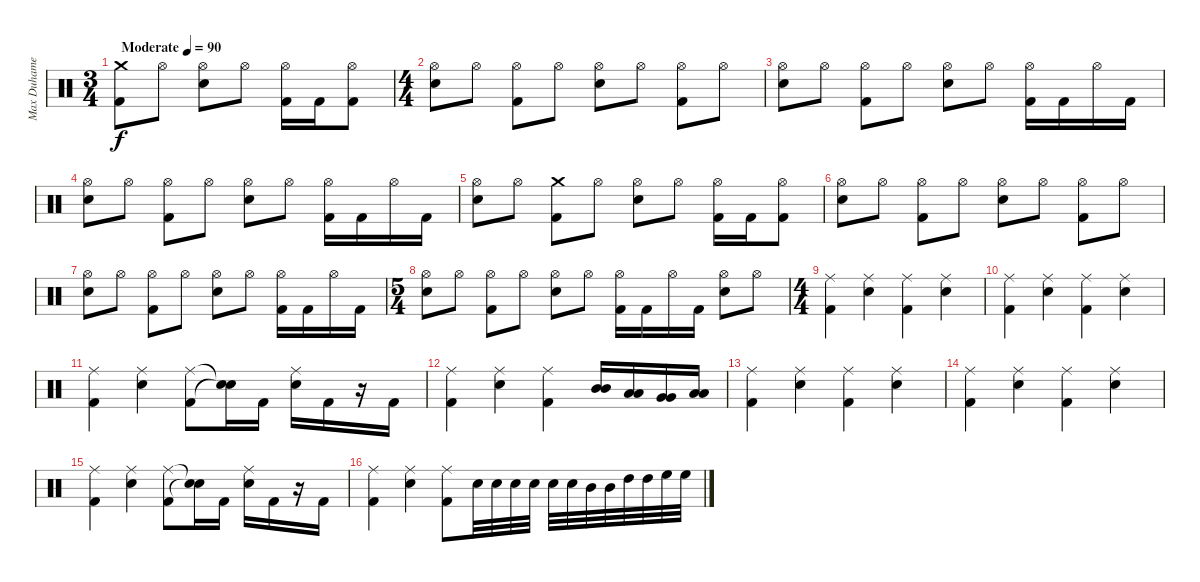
\track ("Max Duhamel (Drums)" "Max Duhame") {instrument percussion}
\staff {score}
\articulation defaults
\ts (3 4)
\tempo (90 "Moderate")
\clef neutral
\ks c
("Crash medium (hit)" "Kick (hit) 2").8{dy f} "Hi-Hat (open)".8 ("Hi-Hat (open)" "Snare (hit) 2").8 "Hi-Hat (open)".8 ("Hi-Hat (open)" "Kick (hit) 2").16 "Kick (hit) 2".16 ("Hi-Hat (open)" "Kick (hit) 2").8 |
\ts (4 4)
("Hi-Hat (open)" "Snare (hit) 2").8 "Hi-Hat (open)".8 ("Hi-Hat (open)" "Kick (hit) 2").8 "Hi-Hat (open)".8 ("Hi-Hat (open)" "Snare (hit) 2").8 "Hi-Hat (open)".8 ("Hi-Hat (open)" "Kick (hit) 2").8 "Hi-Hat (open)".8 |
("Hi-Hat (open)" "Snare (hit) 2").8 "Hi-Hat (open)".8 ("Hi-Hat (open)" "Kick (hit) 2").8 "Hi-Hat (open)".8 ("Hi-Hat (open)" "Snare (hit) 2").8 "Hi-Hat (open)".8 ("Hi-Hat (open)" "Kick (hit) 2").16 "Kick (hit) 2".16 "Hi-Hat (open)".16 "Kick (hit) 2".16 |
("Hi-Hat (open)" "Snare (hit) 2").8 "Hi-Hat (open)".8 ("Hi-Hat (open)" "Kick (hit) 2").8 "Hi-Hat (open)".8 ("Hi-Hat (open)" "Snare (hit) 2").8 "Hi-Hat (open)".8 ("Hi-Hat (open)" "Kick (hit) 2").16 "Kick (hit) 2".16 "Hi-Hat (open)".16 "Kick (hit) 2".16 |
("Hi-Hat (open)" "Snare (hit) 2").8 "Hi-Hat (open)".8 ("Crash medium (hit)" "Kick (hit) 2").8 "Hi-Hat (open)".8 ("Hi-Hat (open)" "Snare (hit) 2").8 "Hi-Hat (open)".8 ("Hi-Hat (open)" "Kick (hit) 2").16 "Kick (hit) 2".16 ("Hi-Hat (open)" "Kick (hit) 2").8 |
("Hi-Hat (open)" "Snare (hit) 2").8 "Hi-Hat (open)".8 ("Hi-Hat (open)" "Kick (hit) 2").8 "Hi-Hat (open)".8 ("Hi-Hat (open)" "Snare (hit) 2").8 "Hi-Hat (open)".8 ("Hi-Hat (open)" "Kick (hit) 2").8 "Hi-Hat (open)".8 |
("Hi-Hat (open)" "Snare (hit) 2").8 "Hi-Hat (open)".8 ("Hi-Hat (open)" "Kick (hit) 2").8 "Hi-Hat (open)".8 ("Hi-Hat (open)" "Snare (hit) 2").8 "Hi-Hat (open)".8 ("Hi-Hat (open)" "Kick (hit) 2").16 "Kick (hit) 2".16 "Hi-Hat (open)".16 "Kick (hit) 2".16 |
\ts (5 4)
("Hi-Hat (open)" "Snare (hit) 2").8 "Hi-Hat (open)".8 ("Hi-Hat (open)" "Kick (hit) 2").8 "Hi-Hat (open)".8 ("Hi-Hat (open)" "Snare (hit) 2").8 "Hi-Hat (open)".8 ("Hi-Hat (open)" "Kick (hit) 2").16 "Kick (hit) 2".16 "Hi-Hat (open)".16 "Kick (hit) 2".16 ("Hi-Hat (open)" "Snare (hit) 2").8 "Hi-Hat (open)".8 |
\ts (4 4)
("Ride (middle)" "Kick (hit) 2").4 ("Ride (middle)" "Snare (hit) 2").4 ("Ride (middle)" "Kick (hit) 2").4 ("Ride (middle)" "Snare (hit) 2").4 |
("Ride (middle)" "Kick (hit) 2").4 ("Ride (middle)" "Snare (hit) 2").4 ("Ride (middle)" "Kick (hit) 2").4 ("Ride (middle)" "Snare (hit) 2").4 |
("Ride (middle)" "Kick (hit) 2").4 ("Ride (middle)" "Snare (hit) 2").4 ("Ride (middle)" "Kick (hit) 2").8 ("Snare (hit)"{t} "Snare (hit)"{t}).16 "Kick (hit) 2".16 ("Ride (middle)" "Snare (hit) 2").16 "Kick (hit) 2".16 r.16 "Kick (hit) 2".16 |
("Ride (middle)" "Kick (hit) 2").4 ("Ride (middle)" "Snare (hit) 2").4 ("Ride (middle)" "Kick (hit) 2").4 ("Mid Tom (hit)" "Mid Tom (hit)").16{bd 480} ("Low Tom (hit)" "Low Tom (hit)").16{bd 480} ("Very Low Tom (hit)" "Very Low Tom (hit)").16{bd 480} ("Low Tom (hit)" "Low Tom (hit)").16{bd 480} |
("Ride (middle)" "Kick (hit) 2").4 ("Ride (middle)" "Snare (hit) 2").4 ("Ride (middle)" "Kick (hit) 2").4 ("Ride (middle)" "Snare (hit) 2").4 |
("Ride (middle)" "Kick (hit) 2").4 ("Ride (middle)" "Snare (hit) 2").4 ("Ride (middle)" "Kick (hit) 2").4 ("Ride (middle)" "Snare (hit) 2").4 |
("Ride (middle)" "Kick (hit) 2").4 ("Ride (middle)" "Snare (hit) 2").4 ("Ride (middle)" "Kick (hit) 2").8 ("Snare (hit)"{t} "Snare (hit)"{t}).16 "Kick (hit) 2".16 ("Ride (middle)" "Snare (hit) 2").16 "Kick (hit) 2".16 r.16 "Kick (hit) 2".16 |
("Ride (middle)" "Kick (hit) 2").4 ("Ride (middle)" "Snare (hit) 2").4 ("Ride (middle)" "Kick (hit) 2").8 "Snare (hit) 2".32 "Snare (hit) 2".32 "Snare (hit) 2".32 "Snare (hit) 2".32 "Snare (hit) 2".32 "Snare (hit) 2".32 "Mid Tom (hit)".32 "Mid Tom (hit)".32 "High Tom (hit)".32 "High Tom (hit)".32 "High Floor Tom (hit)".32 "High Floor Tom (hit)".32
